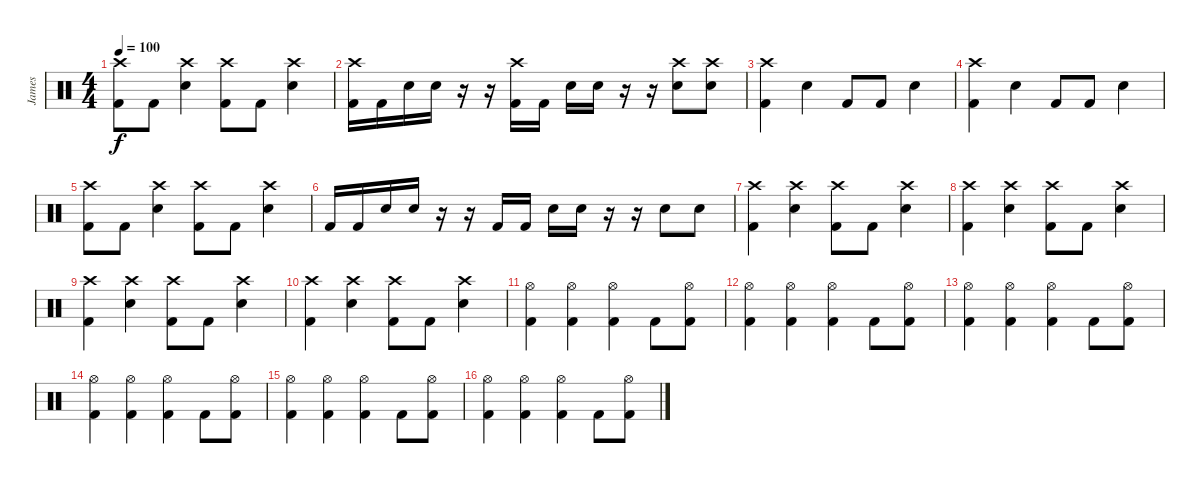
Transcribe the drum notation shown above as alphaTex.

\track ("James" "James") {instrument percussion}
\staff {score}
\articulation defaults
\ts (4 4)
\tempo 100
\clef neutral
\ks c
("Kick (hit) 2" "Crash high (hit)").8{dy f} "Kick (hit) 2".8 ("Electric Snare (hit)" "Crash high (hit)").4 ("Kick (hit) 2" "Crash high (hit)").8 "Kick (hit) 2".8 ("Electric Snare (hit)" "Crash high (hit)").4 |
("Kick (hit) 2" "Crash high (hit)").16 "Kick (hit) 2".16 "Electric Snare (hit)".16 "Electric Snare (hit)".16 r.16 r.16 ("Kick (hit) 2" "Crash high (hit)").16 "Kick (hit) 2".16 "Electric Snare (hit)".16 "Electric Snare (hit)".16 r.16 r.16 ("Electric Snare (hit)" "Crash high (hit)").8 ("Electric Snare (hit)" "Crash high (hit)").8 |
("Kick (hit) 2" "Crash high (hit)").4 "Electric Snare (hit)".4 "Kick (hit) 2".8 "Kick (hit) 2".8 "Electric Snare (hit)".4 |
("Kick (hit) 2" "Crash high (hit)").4 "Electric Snare (hit)".4 "Kick (hit) 2".8 "Kick (hit) 2".8 "Electric Snare (hit)".4 |
("Kick (hit) 2" "Crash high (hit)").8 "Kick (hit) 2".8 ("Electric Snare (hit)" "Crash high (hit)").4 ("Kick (hit) 2" "Crash high (hit)").8 "Kick (hit) 2".8 ("Electric Snare (hit)" "Crash high (hit)").4 |
"Kick (hit) 2".16 "Kick (hit) 2".16 "Electric Snare (hit)".16 "Electric Snare (hit)".16 r.16 r.16 "Kick (hit) 2".16 "Kick (hit) 2".16 "Electric Snare (hit)".16 "Electric Snare (hit)".16 r.16 r.16 "Electric Snare (hit)".8 "Electric Snare (hit)".8 |
("Kick (hit) 2" "Crash high (hit)").4 ("Electric Snare (hit)" "Crash high (hit)").4 ("Kick (hit) 2" "Crash high (hit)").8 "Kick (hit) 2".8 ("Electric Snare (hit)" "Crash high (hit)").4 |
("Kick (hit) 2" "Crash high (hit)").4 ("Electric Snare (hit)" "Crash high (hit)").4 ("Kick (hit) 2" "Crash high (hit)").8 "Kick (hit) 2".8 ("Electric Snare (hit)" "Crash high (hit)").4 |
("Kick (hit) 2" "Crash high (hit)").4 ("Electric Snare (hit)" "Crash high (hit)").4 ("Kick (hit) 2" "Crash high (hit)").8 "Kick (hit) 2".8 ("Electric Snare (hit)" "Crash high (hit)").4 |
("Kick (hit) 2" "Crash high (hit)").4 ("Electric Snare (hit)" "Crash high (hit)").4 ("Kick (hit) 2" "Crash high (hit)").8 "Kick (hit) 2".8 ("Electric Snare (hit)" "Crash high (hit)").4 |
("Kick (hit) 2" "Hi-Hat (open)").4 ("Kick (hit) 2" "Hi-Hat (open)").4 ("Kick (hit) 2" "Hi-Hat (open)").4 "Kick (hit) 2".8 ("Kick (hit) 2" "Hi-Hat (open)").8 |
("Kick (hit) 2" "Hi-Hat (open)").4 ("Kick (hit) 2" "Hi-Hat (open)").4 ("Kick (hit) 2" "Hi-Hat (open)").4 "Kick (hit) 2".8 ("Kick (hit) 2" "Hi-Hat (open)").8 |
("Kick (hit) 2" "Hi-Hat (open)").4 ("Kick (hit) 2" "Hi-Hat (open)").4 ("Kick (hit) 2" "Hi-Hat (open)").4 "Kick (hit) 2".8 ("Kick (hit) 2" "Hi-Hat (open)").8 |
("Kick (hit) 2" "Hi-Hat (open)").4 ("Kick (hit) 2" "Hi-Hat (open)").4 ("Kick (hit) 2" "Hi-Hat (open)").4 "Kick (hit) 2".8 ("Kick (hit) 2" "Hi-Hat (open)").8 |
("Kick (hit) 2" "Hi-Hat (open)").4 ("Kick (hit) 2" "Hi-Hat (open)").4 ("Kick (hit) 2" "Hi-Hat (open)").4 "Kick (hit) 2".8 ("Kick (hit) 2" "Hi-Hat (open)").8 |
("Kick (hit) 2" "Hi-Hat (open)").4 ("Kick (hit) 2" "Hi-Hat (open)").4 ("Kick (hit) 2" "Hi-Hat (open)").4 "Kick (hit) 2".8 ("Kick (hit) 2" "Hi-Hat (open)").8
